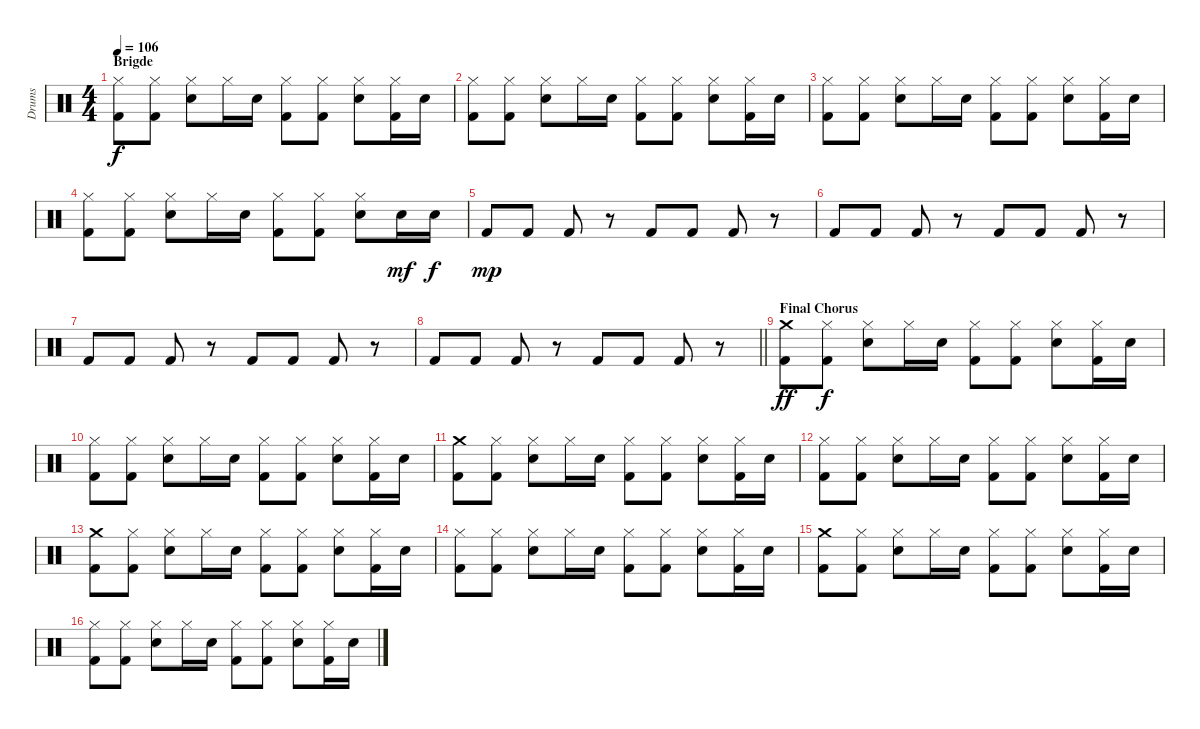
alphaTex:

\track ("Drums" "Drums") {instrument percussion}
\staff {score}
\articulation defaults
\ts (4 4)
\section ("" "Brigde")
\tempo 106
\clef neutral
\ks c
("Hi-Hat (closed)" "Kick (hit) 2").8{dy f} ("Hi-Hat (closed)" "Kick (hit) 2").8 ("Hi-Hat (closed)" "Electric Snare (hit)").8 "Hi-Hat (closed)".16 "Electric Snare (hit)".16 ("Hi-Hat (closed)" "Kick (hit) 2").8 ("Hi-Hat (closed)" "Kick (hit) 2").8 ("Hi-Hat (closed)" "Electric Snare (hit)").8 ("Hi-Hat (closed)" "Kick (hit) 2").16 "Electric Snare (hit)".16 |
("Hi-Hat (closed)" "Kick (hit) 2").8 ("Hi-Hat (closed)" "Kick (hit) 2").8 ("Hi-Hat (closed)" "Electric Snare (hit)").8 "Hi-Hat (closed)".16 "Electric Snare (hit)".16 ("Hi-Hat (closed)" "Kick (hit) 2").8 ("Hi-Hat (closed)" "Kick (hit) 2").8 ("Hi-Hat (closed)" "Electric Snare (hit)").8 ("Hi-Hat (closed)" "Kick (hit) 2").16 "Electric Snare (hit)".16 |
("Hi-Hat (closed)" "Kick (hit) 2").8 ("Hi-Hat (closed)" "Kick (hit) 2").8 ("Hi-Hat (closed)" "Electric Snare (hit)").8 "Hi-Hat (closed)".16 "Electric Snare (hit)".16 ("Hi-Hat (closed)" "Kick (hit) 2").8 ("Hi-Hat (closed)" "Kick (hit) 2").8 ("Hi-Hat (closed)" "Electric Snare (hit)").8 ("Hi-Hat (closed)" "Kick (hit) 2").16 "Electric Snare (hit)".16 |
("Hi-Hat (closed)" "Kick (hit) 2").8 ("Hi-Hat (closed)" "Kick (hit) 2").8 ("Hi-Hat (closed)" "Electric Snare (hit)").8 "Hi-Hat (closed)".16 "Electric Snare (hit)".16 ("Hi-Hat (closed)" "Kick (hit) 2").8 ("Hi-Hat (closed)" "Kick (hit) 2").8 ("Hi-Hat (closed)" "Electric Snare (hit)").8 "Electric Snare (hit)".16{dy mf} "Electric Snare (hit)".16{dy f} |
"Kick (hit) 2".8{dy mp} "Kick (hit) 2".8 "Kick (hit) 2".8 r.8 "Kick (hit) 2".8 "Kick (hit) 2".8 "Kick (hit) 2".8 r.8 |
"Kick (hit) 2".8 "Kick (hit) 2".8 "Kick (hit) 2".8 r.8 "Kick (hit) 2".8 "Kick (hit) 2".8 "Kick (hit) 2".8 r.8 |
"Kick (hit) 2".8 "Kick (hit) 2".8 "Kick (hit) 2".8 r.8 "Kick (hit) 2".8 "Kick (hit) 2".8 "Kick (hit) 2".8 r.8 |
\barLineRight lightlight "Kick (hit) 2".8 "Kick (hit) 2".8 "Kick (hit) 2".8
r.8 "Kick (hit) 2".8 "Kick (hit) 2".8 "Kick (hit) 2".8 r.8 |
\section ("" "Final Chorus")
("Crash medium (hit)" "Kick (hit) 2").8{dy ff} ("Hi-Hat (closed)" "Kick (hit) 2").8{dy f} ("Hi-Hat (closed)" "Electric Snare (hit)").8 "Hi-Hat (closed)".16 "Electric Snare (hit)".16 ("Hi-Hat (closed)" "Kick (hit) 2").8 ("Hi-Hat (closed)" "Kick (hit) 2").8 ("Hi-Hat (closed)" "Electric Snare (hit)").8 ("Hi-Hat (closed)" "Kick (hit) 2").16 "Electric Snare (hit)".16 |
("Hi-Hat (closed)" "Kick (hit) 2").8 ("Hi-Hat (closed)" "Kick (hit) 2").8 ("Hi-Hat (closed)" "Electric Snare (hit)").8 "Hi-Hat (closed)".16 "Electric Snare (hit)".16 ("Hi-Hat (closed)" "Kick (hit) 2").8 ("Hi-Hat (closed)" "Kick (hit) 2").8 ("Hi-Hat (closed)" "Electric Snare (hit)").8 ("Hi-Hat (closed)" "Kick (hit) 2").16 "Electric Snare (hit)".16 |
("Crash medium (hit)" "Kick (hit) 2").8 ("Hi-Hat (closed)" "Kick (hit) 2").8 ("Hi-Hat (closed)" "Electric Snare (hit)").8 "Hi-Hat (closed)".16 "Electric Snare (hit)".16 ("Hi-Hat (closed)" "Kick (hit) 2").8 ("Hi-Hat (closed)" "Kick (hit) 2").8 ("Hi-Hat (closed)" "Electric Snare (hit)").8 ("Hi-Hat (closed)" "Kick (hit) 2").16 "Electric Snare (hit)".16 |
("Hi-Hat (closed)" "Kick (hit) 2").8 ("Hi-Hat (closed)" "Kick (hit) 2").8 ("Hi-Hat (closed)" "Electric Snare (hit)").8 "Hi-Hat (closed)".16 "Electric Snare (hit)".16 ("Hi-Hat (closed)" "Kick (hit) 2").8 ("Hi-Hat (closed)" "Kick (hit) 2").8 ("Hi-Hat (closed)" "Electric Snare (hit)").8 ("Hi-Hat (closed)" "Kick (hit) 2").16 "Electric Snare (hit)".16 |
("Crash medium (hit)" "Kick (hit) 2").8 ("Hi-Hat (closed)" "Kick (hit) 2").8 ("Hi-Hat (closed)" "Electric Snare (hit)").8 "Hi-Hat (closed)".16 "Electric Snare (hit)".16 ("Hi-Hat (closed)" "Kick (hit) 2").8 ("Hi-Hat (closed)" "Kick (hit) 2").8 ("Hi-Hat (closed)" "Electric Snare (hit)").8 ("Hi-Hat (closed)" "Kick (hit) 2").16 "Electric Snare (hit)".16 |
("Hi-Hat (closed)" "Kick (hit) 2").8 ("Hi-Hat (closed)" "Kick (hit) 2").8 ("Hi-Hat (closed)" "Electric Snare (hit)").8 "Hi-Hat (closed)".16 "Electric Snare (hit)".16 ("Hi-Hat (closed)" "Kick (hit) 2").8 ("Hi-Hat (closed)" "Kick (hit) 2").8 ("Hi-Hat (closed)" "Electric Snare (hit)").8 ("Hi-Hat (closed)" "Kick (hit) 2").16 "Electric Snare (hit)".16 |
("Crash medium (hit)" "Kick (hit) 2").8 ("Hi-Hat (closed)" "Kick (hit) 2").8 ("Hi-Hat (closed)" "Electric Snare (hit)").8 "Hi-Hat (closed)".16 "Electric Snare (hit)".16 ("Hi-Hat (closed)" "Kick (hit) 2").8 ("Hi-Hat (closed)" "Kick (hit) 2").8 ("Hi-Hat (closed)" "Electric Snare (hit)").8 ("Hi-Hat (closed)" "Kick (hit) 2").16 "Electric Snare (hit)".16 |
("Hi-Hat (closed)" "Kick (hit) 2").8 ("Hi-Hat (closed)" "Kick (hit) 2").8 ("Hi-Hat (closed)" "Electric Snare (hit)").8 "Hi-Hat (closed)".16 "Electric Snare (hit)".16 ("Hi-Hat (closed)" "Kick (hit) 2").8 ("Hi-Hat (closed)" "Kick (hit) 2").8 ("Hi-Hat (closed)" "Electric Snare (hit)").8 ("Hi-Hat (closed)" "Kick (hit) 2").16 "Electric Snare (hit)".16
